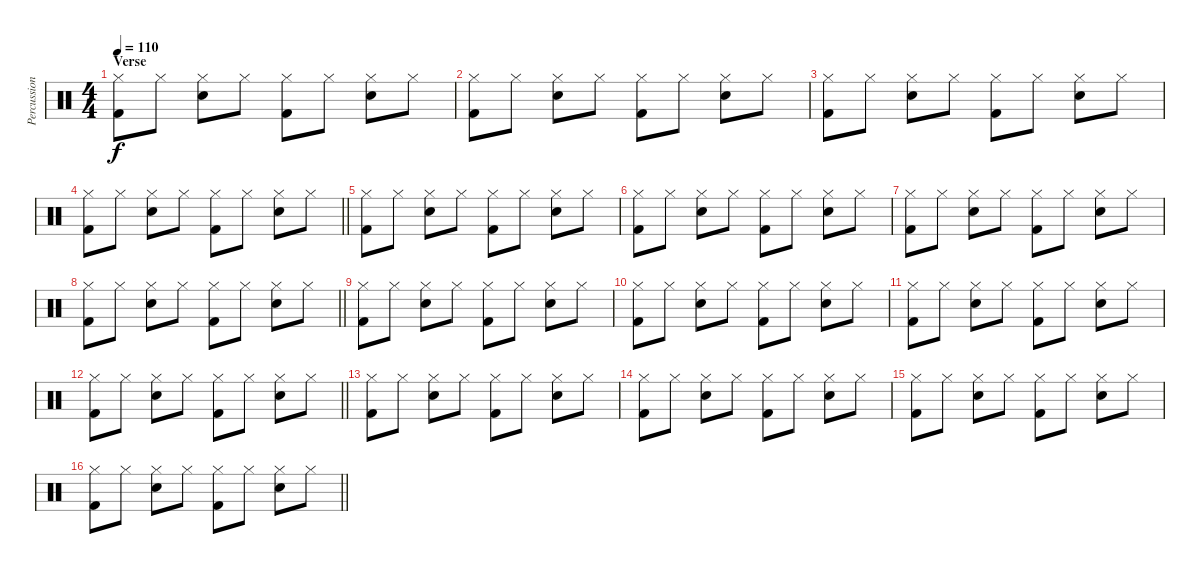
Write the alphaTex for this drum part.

\track ("Percussion" "Percussion") {instrument percussion}
\staff {score}
\articulation defaults
\ts (4 4)
\section ("" "Verse")
\tempo 110
\clef neutral
\ks c
("Hi-Hat (closed)" "Kick (hit) 2").8{dy f} "Hi-Hat (closed)".8 ("Hi-Hat (closed)" "Electric Snare (hit)").8 "Hi-Hat (closed)".8 ("Hi-Hat (closed)" "Kick (hit) 2").8 "Hi-Hat (closed)".8 ("Hi-Hat (closed)" "Electric Snare (hit)").8 "Hi-Hat (closed)".8 |
("Hi-Hat (closed)" "Kick (hit) 2").8 "Hi-Hat (closed)".8 ("Hi-Hat (closed)" "Electric Snare (hit)").8 "Hi-Hat (closed)".8 ("Hi-Hat (closed)" "Kick (hit) 2").8 "Hi-Hat (closed)".8 ("Hi-Hat (closed)" "Electric Snare (hit)").8 "Hi-Hat (closed)".8 |
("Hi-Hat (closed)" "Kick (hit) 2").8 "Hi-Hat (closed)".8 ("Hi-Hat (closed)" "Electric Snare (hit)").8 "Hi-Hat (closed)".8 ("Hi-Hat (closed)" "Kick (hit) 2").8 "Hi-Hat (closed)".8 ("Hi-Hat (closed)" "Electric Snare (hit)").8 "Hi-Hat (closed)".8 |
\barLineRight lightlight
("Hi-Hat (closed)" "Kick (hit) 2").8 "Hi-Hat (closed)".8 ("Hi-Hat (closed)" "Electric Snare (hit)").8 "Hi-Hat (closed)".8 ("Hi-Hat (closed)" "Kick (hit) 2").8 "Hi-Hat (closed)".8 ("Hi-Hat (closed)" "Electric Snare (hit)").8 "Hi-Hat (closed)".8 |
("Hi-Hat (closed)" "Kick (hit) 2").8 "Hi-Hat (closed)".8 ("Hi-Hat (closed)" "Electric Snare (hit)").8 "Hi-Hat (closed)".8 ("Hi-Hat (closed)" "Kick (hit) 2").8 "Hi-Hat (closed)".8 ("Hi-Hat (closed)" "Electric Snare (hit)").8 "Hi-Hat (closed)".8 |
("Hi-Hat (closed)" "Kick (hit) 2").8 "Hi-Hat (closed)".8 ("Hi-Hat (closed)" "Electric Snare (hit)").8 "Hi-Hat (closed)".8 ("Hi-Hat (closed)" "Kick (hit) 2").8 "Hi-Hat (closed)".8 ("Hi-Hat (closed)" "Electric Snare (hit)").8 "Hi-Hat (closed)".8 |
("Hi-Hat (closed)" "Kick (hit) 2").8 "Hi-Hat (closed)".8 ("Hi-Hat (closed)" "Electric Snare (hit)").8 "Hi-Hat (closed)".8 ("Hi-Hat (closed)" "Kick (hit) 2").8 "Hi-Hat (closed)".8 ("Hi-Hat (closed)" "Electric Snare (hit)").8 "Hi-Hat (closed)".8 |
\barLineRight lightlight
("Hi-Hat (closed)" "Kick (hit) 2").8 "Hi-Hat (closed)".8 ("Hi-Hat (closed)" "Electric Snare (hit)").8 "Hi-Hat (closed)".8 ("Hi-Hat (closed)" "Kick (hit) 2").8 "Hi-Hat (closed)".8 ("Hi-Hat (closed)" "Electric Snare (hit)").8 "Hi-Hat (closed)".8 |
("Hi-Hat (closed)" "Kick (hit) 2").8 "Hi-Hat (closed)".8 ("Hi-Hat (closed)" "Electric Snare (hit)").8 "Hi-Hat (closed)".8 ("Hi-Hat (closed)" "Kick (hit) 2").8 "Hi-Hat (closed)".8 ("Hi-Hat (closed)" "Electric Snare (hit)").8 "Hi-Hat (closed)".8 |
("Hi-Hat (closed)" "Kick (hit) 2").8 "Hi-Hat (closed)".8 ("Hi-Hat (closed)" "Electric Snare (hit)").8 "Hi-Hat (closed)".8 ("Hi-Hat (closed)" "Kick (hit) 2").8 "Hi-Hat (closed)".8 ("Hi-Hat (closed)" "Electric Snare (hit)").8 "Hi-Hat (closed)".8 |
("Hi-Hat (closed)" "Kick (hit) 2").8 "Hi-Hat (closed)".8 ("Hi-Hat (closed)" "Electric Snare (hit)").8 "Hi-Hat (closed)".8 ("Hi-Hat (closed)" "Kick (hit) 2").8 "Hi-Hat (closed)".8 ("Hi-Hat (closed)" "Electric Snare (hit)").8 "Hi-Hat (closed)".8 |
\barLineRight lightlight
("Hi-Hat (closed)" "Kick (hit) 2").8 "Hi-Hat (closed)".8 ("Hi-Hat (closed)" "Electric Snare (hit)").8 "Hi-Hat (closed)".8 ("Hi-Hat (closed)" "Kick (hit) 2").8 "Hi-Hat (closed)".8 ("Hi-Hat (closed)" "Electric Snare (hit)").8 "Hi-Hat (closed)".8 |
("Hi-Hat (closed)" "Kick (hit) 2").8 "Hi-Hat (closed)".8 ("Hi-Hat (closed)" "Electric Snare (hit)").8 "Hi-Hat (closed)".8 ("Hi-Hat (closed)" "Kick (hit) 2").8 "Hi-Hat (closed)".8 ("Hi-Hat (closed)" "Electric Snare (hit)").8 "Hi-Hat (closed)".8 |
("Hi-Hat (closed)" "Kick (hit) 2").8 "Hi-Hat (closed)".8 ("Hi-Hat (closed)" "Electric Snare (hit)").8 "Hi-Hat (closed)".8 ("Hi-Hat (closed)" "Kick (hit) 2").8 "Hi-Hat (closed)".8 ("Hi-Hat (closed)" "Electric Snare (hit)").8 "Hi-Hat (closed)".8 |
("Hi-Hat (closed)" "Kick (hit) 2").8 "Hi-Hat (closed)".8 ("Hi-Hat (closed)" "Electric Snare (hit)").8 "Hi-Hat (closed)".8 ("Hi-Hat (closed)" "Kick (hit) 2").8 "Hi-Hat (closed)".8 ("Hi-Hat (closed)" "Electric Snare (hit)").8 "Hi-Hat (closed)".8 |
\barLineRight lightlight
("Hi-Hat (closed)" "Kick (hit) 2").8 "Hi-Hat (closed)".8 ("Hi-Hat (closed)" "Electric Snare (hit)").8 "Hi-Hat (closed)".8 ("Hi-Hat (closed)" "Kick (hit) 2").8 "Hi-Hat (closed)".8 ("Hi-Hat (closed)" "Electric Snare (hit)").8 "Hi-Hat (closed)".8
